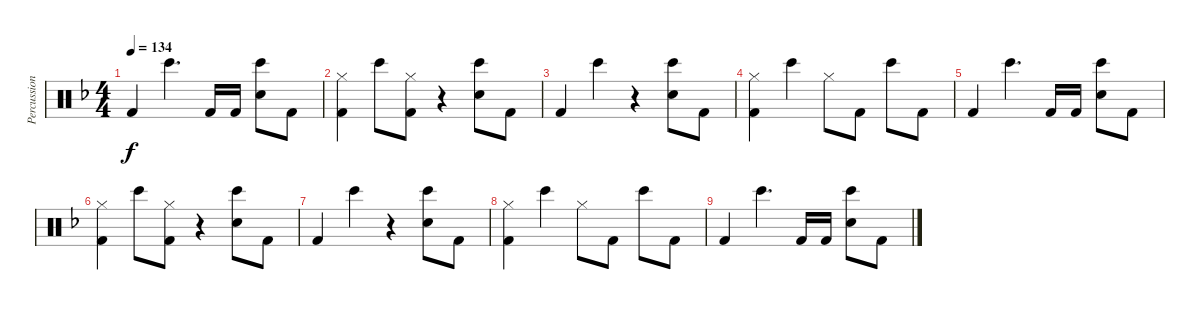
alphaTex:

\track ("Percussion" "Percussion") {instrument percussion}
\staff {score}
\articulation defaults
\ts (4 4)
\tempo 134
\clef neutral
\ks f "Kick (hit) 2".4{dy f} "Bongo High (hit)".4{d} "Kick (hit) 2".16 "Kick (hit) 2".16
("Hand Clap (hit)" "Bongo High (hit)").8 "Kick (hit) 2".8 |
("Hi-Hat (closed)" "Kick (hit) 2").4 "Bongo High (hit)".8 ("Hi-Hat (closed)" "Kick (hit) 2").8 r.4 ("Hand Clap (hit)" "Bongo High (hit)").8 "Kick (hit) 2".8 |
"Kick (hit) 2".4 "Bongo High (hit)".4 r.4 ("Hand Clap (hit)" "Bongo High (hit)").8 "Kick (hit) 2".8 |
("Hi-Hat (closed)" "Kick (hit) 2").4 "Bongo High (hit)".4 "Hi-Hat (closed)".8 "Kick (hit) 2".8 "Bongo High (hit)".8 "Kick (hit) 2".8 |
"Kick (hit) 2".4 "Bongo High (hit)".4{d} "Kick (hit) 2".16 "Kick (hit) 2".16 ("Hand Clap (hit)" "Bongo High (hit)").8 "Kick (hit) 2".8 |
("Hi-Hat (closed)" "Kick (hit) 2").4 "Bongo High (hit)".8 ("Hi-Hat (closed)" "Kick (hit) 2").8 r.4 ("Hand Clap (hit)" "Bongo High (hit)").8 "Kick (hit) 2".8 |
"Kick (hit) 2".4 "Bongo High (hit)".4 r.4 ("Hand Clap (hit)" "Bongo High (hit)").8 "Kick (hit) 2".8 |
("Hi-Hat (closed)" "Kick (hit) 2").4 "Bongo High (hit)".4 "Hi-Hat (closed)".8 "Kick (hit) 2".8 "Bongo High (hit)".8 "Kick (hit) 2".8 |
"Kick (hit) 2".4 "Bongo High (hit)".4{d} "Kick (hit) 2".16 "Kick (hit) 2".16 ("Hand Clap (hit)" "Bongo High (hit)").8 "Kick (hit) 2".8
